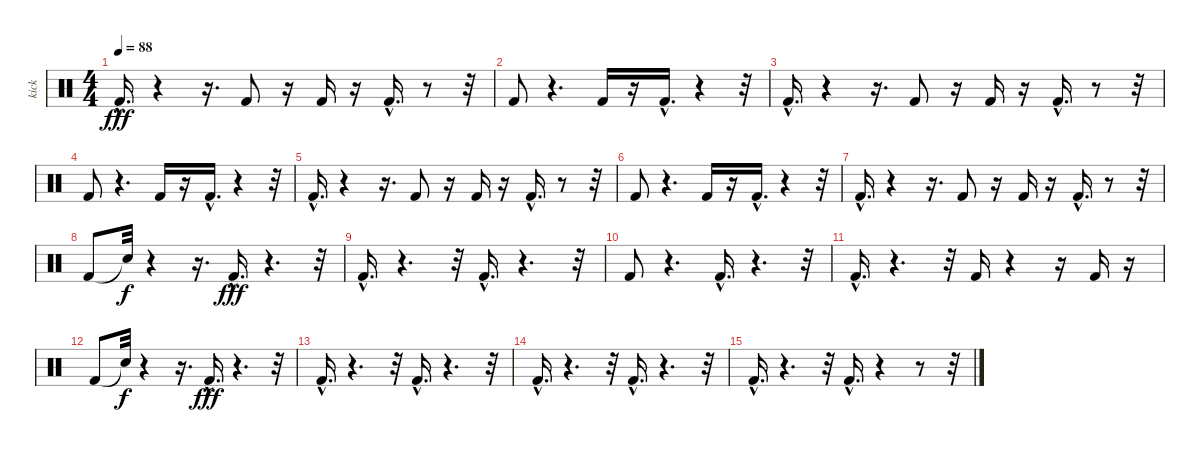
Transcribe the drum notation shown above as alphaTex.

\track ("kick" "kick") {instrument percussion}
\staff {score}
\articulation defaults
\ts (4 4)
\tempo 88
\clef neutral
\ks c "Kick (hit) 2"{hac}.16{d dy fff}
r.4 r.16{d} "Kick (hit) 2".8 r.16 "Kick (hit) 2".16 r.16 "Kick (hit) 2"{hac}.16{d} r.8 r.32 |
"Kick (hit) 2".8 r.4{d} "Kick (hit) 2".16 r.16 "Kick (hit) 2"{hac}.16{d} r.4 r.32 |
"Kick (hit) 2"{hac}.16{d} r.4 r.16{d} "Kick (hit) 2".8 r.16 "Kick (hit) 2".16 r.16 "Kick (hit) 2"{hac}.16{d} r.8 r.32 |
"Kick (hit) 2".8 r.4{d} "Kick (hit) 2".16 r.16 "Kick (hit) 2"{hac}.16{d} r.4 r.32 |
"Kick (hit) 2"{hac}.16{d} r.4 r.16{d} "Kick (hit) 2".8 r.16 "Kick (hit) 2".16 r.16 "Kick (hit) 2"{hac}.16{d} r.8 r.32 |
"Kick (hit) 2".8 r.4{d} "Kick (hit) 2".16 r.16 "Kick (hit) 2"{hac}.16{d} r.4 r.32 |
"Kick (hit) 2"{hac}.16{d} r.4 r.16{d} "Kick (hit) 2".8 r.16 "Kick (hit) 2".16 r.16 "Kick (hit) 2"{hac}.16{d} r.8 r.32 |
"Kick (hit) 2".8 "Snare (hit)"{t}.32{dy f} r.4 r.16{d} "Kick (hit) 2"{hac}.16{d dy fff} r.4{d} r.32 |
"Kick (hit) 2"{hac}.16{d} r.4{d} r.32 "Kick (hit) 2"{hac}.16{d} r.4{d} r.32 |
"Kick (hit) 2".8 r.4{d} "Kick (hit) 2"{hac}.16{d} r.4{d} r.32 |
"Kick (hit) 2"{hac}.16{d} r.4{d} r.32 "Kick (hit) 2".16 r.4 r.16 "Kick (hit) 2".16 r.16 |
"Kick (hit) 2".8 "Snare (hit)"{t}.32{dy f} r.4 r.16{d} "Kick (hit) 2"{hac}.16{d dy fff} r.4{d} r.32 |
"Kick (hit) 2"{hac}.16{d} r.4{d} r.32 "Kick (hit) 2"{hac}.16{d} r.4{d} r.32 |
"Kick (hit) 2"{hac}.16{d} r.4{d} r.32 "Kick (hit) 2"{hac}.16{d} r.4{d} r.32 |
"Kick (hit) 2"{hac}.16{d} r.4{d} r.32 "Kick (hit) 2"{hac}.16{d} r.4 r.8 r.32
